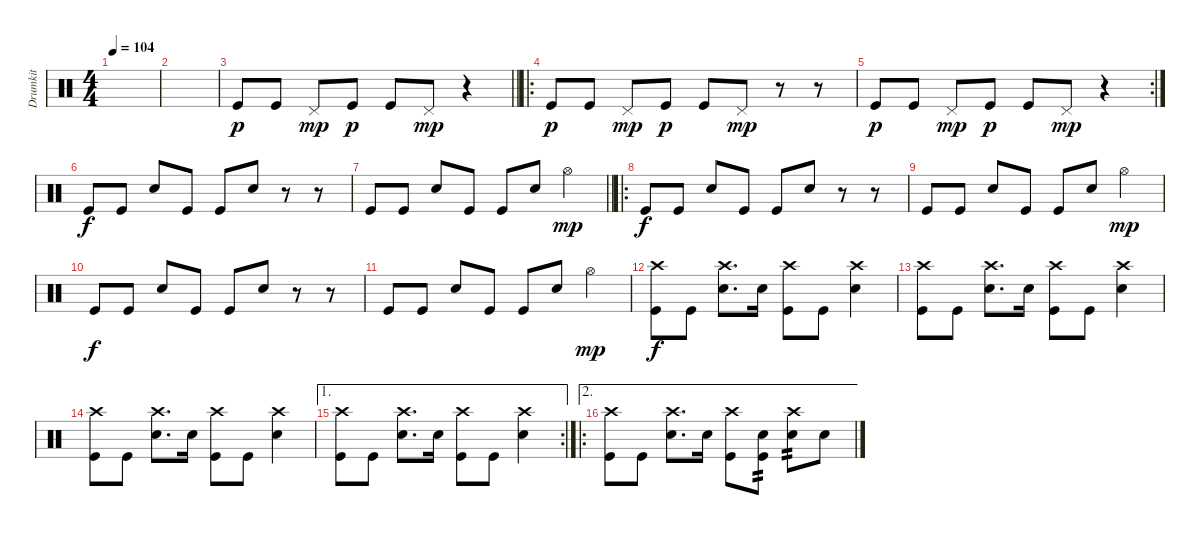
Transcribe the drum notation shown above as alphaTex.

\track ("Drumkit" "Drumkit") {instrument percussion}
\staff {score}
\articulation defaults
\ts (4 4)
\tempo 104
\clef neutral
\ks c
|
|
\barLineRight lightlight "Kick (hit)".8{dy p} "Kick (hit)".8 "Pedal Hi-Hat (hit)".8{dy mp} "Kick (hit)".8{dy p} "Kick (hit)".8 "Pedal Hi-Hat (hit)".8{dy mp}
r.4 |
\ro "Kick (hit)".8{dy p} "Kick (hit)".8 "Pedal Hi-Hat (hit)".8{dy mp} "Kick (hit)".8{dy p} "Kick (hit)".8 "Pedal Hi-Hat (hit)".8{dy mp}
r.8 r.8 |
\rc 2 "Kick (hit)".8{dy p} "Kick (hit)".8 "Pedal Hi-Hat (hit)".8{dy mp} "Kick (hit)".8{dy p} "Kick (hit)".8 "Pedal Hi-Hat (hit)".8{dy mp}
r.4 |
"Kick (hit)".8{dy f} "Kick (hit)".8 "Snare (hit) 2".8 "Kick (hit)".8 "Kick (hit)".8 "Snare (hit) 2".8 r.8 r.8 |
\barLineRight lightlight "Kick (hit)".8 "Kick (hit)".8 "Snare (hit) 2".8 "Kick (hit)".8 "Kick (hit)".8 "Snare (hit) 2".8 "Hi-Hat (open)".4{dy mp}
|
\ro "Kick (hit)".8{dy f} "Kick (hit)".8 "Snare (hit) 2".8 "Kick (hit)".8 "Kick (hit)".8 "Snare (hit) 2".8
r.8 r.8 |
"Kick (hit)".8 "Kick (hit)".8 "Snare (hit) 2".8 "Kick (hit)".8 "Kick (hit)".8 "Snare (hit) 2".8 "Hi-Hat (open)".4{dy mp} |
"Kick (hit)".8{dy f} "Kick (hit)".8 "Snare (hit) 2".8 "Kick (hit)".8 "Kick (hit)".8 "Snare (hit) 2".8 r.8 r.8 |
"Kick (hit)".8 "Kick (hit)".8 "Snare (hit) 2".8 "Kick (hit)".8 "Kick (hit)".8 "Snare (hit) 2".8 "Hi-Hat (open)".4{dy mp} |
("Crash high (hit)" "Kick (hit)").8{dy f} "Kick (hit)".8 ("Crash high (hit)" "Snare (hit) 2").8{d} "Snare (hit) 2".16 ("Crash high (hit)" "Kick (hit)").8 "Kick (hit)".8 ("Crash high (hit)" "Snare (hit) 2").4 |
("Crash high (hit)" "Kick (hit)").8 "Kick (hit)".8 ("Crash high (hit)" "Snare (hit) 2").8{d} "Snare (hit) 2".16 ("Crash high (hit)" "Kick (hit)").8 "Kick (hit)".8 ("Crash high (hit)" "Snare (hit) 2").4 |
("Crash high (hit)" "Kick (hit)").8 "Kick (hit)".8 ("Crash high (hit)" "Snare (hit) 2").8{d} "Snare (hit) 2".16 ("Crash high (hit)" "Kick (hit)").8 "Kick (hit)".8 ("Crash high (hit)" "Snare (hit) 2").4 |
\ae 1
\rc 2
("Crash high (hit)" "Kick (hit)").8 "Kick (hit)".8 ("Crash high (hit)" "Snare (hit) 2").8{d} "Snare (hit) 2".16 ("Crash high (hit)" "Kick (hit)").8 "Kick (hit)".8 ("Crash high (hit)" "Snare (hit) 2").4 |
\ae 2
\ro
("Crash high (hit)" "Kick (hit)").8 "Kick (hit)".8 ("Crash high (hit)" "Snare (hit) 2").8{d} "Snare (hit) 2".16 ("Crash high (hit)" "Kick (hit)").8 ("Snare (hit) 2" "Kick (hit)").8{tp 2} ("Crash high (hit)" "Snare (hit) 2").8{tp 2} "Snare (hit) 2".8
